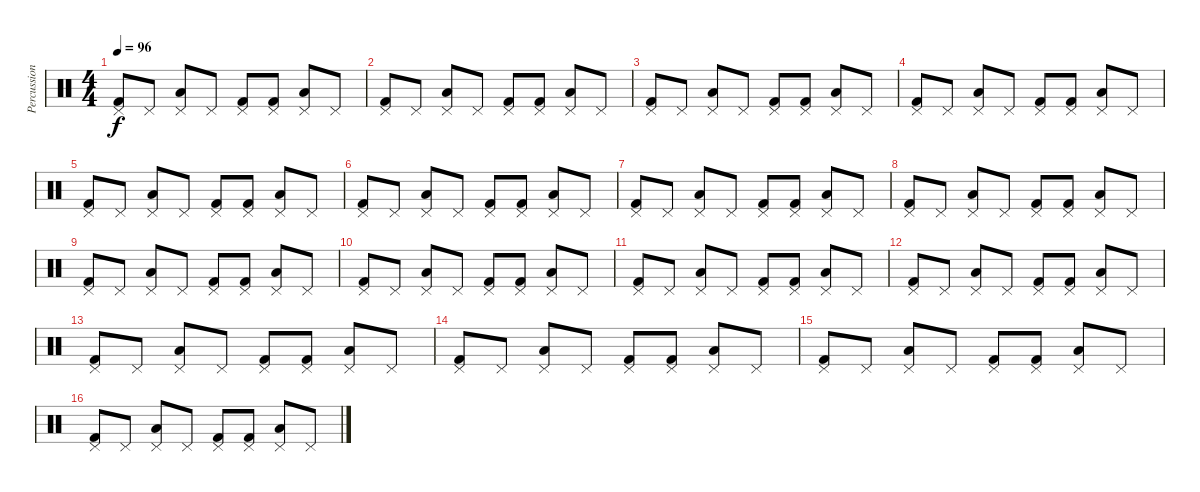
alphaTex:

\track ("Percussion" "Percussion") {instrument percussion}
\staff {score}
\articulation defaults
\ts (4 4)
\tempo 96
\clef neutral
\ks c
("Pedal Hi-Hat (hit)" "Kick (hit) 2").8{dy f} "Pedal Hi-Hat (hit)".8 ("Pedal Hi-Hat (hit)" "Low Floor Tom (hit)").8 "Pedal Hi-Hat (hit)".8 ("Pedal Hi-Hat (hit)" "Kick (hit) 2").8 ("Pedal Hi-Hat (hit)" "Kick (hit) 2").8 ("Pedal Hi-Hat (hit)" "Low Floor Tom (hit)").8 "Pedal Hi-Hat (hit)".8 |
("Pedal Hi-Hat (hit)" "Kick (hit) 2").8 "Pedal Hi-Hat (hit)".8 ("Pedal Hi-Hat (hit)" "Low Floor Tom (hit)").8 "Pedal Hi-Hat (hit)".8 ("Pedal Hi-Hat (hit)" "Kick (hit) 2").8 ("Pedal Hi-Hat (hit)" "Kick (hit) 2").8 ("Pedal Hi-Hat (hit)" "Low Floor Tom (hit)").8 "Pedal Hi-Hat (hit)".8 |
("Pedal Hi-Hat (hit)" "Kick (hit) 2").8 "Pedal Hi-Hat (hit)".8 ("Pedal Hi-Hat (hit)" "Low Floor Tom (hit)").8 "Pedal Hi-Hat (hit)".8 ("Pedal Hi-Hat (hit)" "Kick (hit) 2").8 ("Pedal Hi-Hat (hit)" "Kick (hit) 2").8 ("Pedal Hi-Hat (hit)" "Low Floor Tom (hit)").8 "Pedal Hi-Hat (hit)".8 |
("Pedal Hi-Hat (hit)" "Kick (hit) 2").8 "Pedal Hi-Hat (hit)".8 ("Pedal Hi-Hat (hit)" "Low Floor Tom (hit)").8 "Pedal Hi-Hat (hit)".8 ("Pedal Hi-Hat (hit)" "Kick (hit) 2").8 ("Pedal Hi-Hat (hit)" "Kick (hit) 2").8 ("Pedal Hi-Hat (hit)" "Low Floor Tom (hit)").8 "Pedal Hi-Hat (hit)".8 |
("Pedal Hi-Hat (hit)" "Kick (hit) 2").8 "Pedal Hi-Hat (hit)".8 ("Pedal Hi-Hat (hit)" "Low Floor Tom (hit)").8 "Pedal Hi-Hat (hit)".8 ("Pedal Hi-Hat (hit)" "Kick (hit) 2").8 ("Pedal Hi-Hat (hit)" "Kick (hit) 2").8 ("Pedal Hi-Hat (hit)" "Low Floor Tom (hit)").8 "Pedal Hi-Hat (hit)".8 |
("Pedal Hi-Hat (hit)" "Kick (hit) 2").8 "Pedal Hi-Hat (hit)".8 ("Pedal Hi-Hat (hit)" "Low Floor Tom (hit)").8 "Pedal Hi-Hat (hit)".8 ("Pedal Hi-Hat (hit)" "Kick (hit) 2").8 ("Pedal Hi-Hat (hit)" "Kick (hit) 2").8 ("Pedal Hi-Hat (hit)" "Low Floor Tom (hit)").8 "Pedal Hi-Hat (hit)".8 |
("Pedal Hi-Hat (hit)" "Kick (hit) 2").8 "Pedal Hi-Hat (hit)".8 ("Pedal Hi-Hat (hit)" "Low Floor Tom (hit)").8 "Pedal Hi-Hat (hit)".8 ("Pedal Hi-Hat (hit)" "Kick (hit) 2").8 ("Pedal Hi-Hat (hit)" "Kick (hit) 2").8 ("Pedal Hi-Hat (hit)" "Low Floor Tom (hit)").8 "Pedal Hi-Hat (hit)".8 |
("Pedal Hi-Hat (hit)" "Kick (hit) 2").8 "Pedal Hi-Hat (hit)".8 ("Pedal Hi-Hat (hit)" "Low Floor Tom (hit)").8 "Pedal Hi-Hat (hit)".8 ("Pedal Hi-Hat (hit)" "Kick (hit) 2").8 ("Pedal Hi-Hat (hit)" "Kick (hit) 2").8 ("Pedal Hi-Hat (hit)" "Low Floor Tom (hit)").8 "Pedal Hi-Hat (hit)".8 |
("Pedal Hi-Hat (hit)" "Kick (hit) 2").8 "Pedal Hi-Hat (hit)".8 ("Pedal Hi-Hat (hit)" "Low Floor Tom (hit)").8 "Pedal Hi-Hat (hit)".8 ("Pedal Hi-Hat (hit)" "Kick (hit) 2").8 ("Pedal Hi-Hat (hit)" "Kick (hit) 2").8 ("Pedal Hi-Hat (hit)" "Low Floor Tom (hit)").8 "Pedal Hi-Hat (hit)".8 |
("Pedal Hi-Hat (hit)" "Kick (hit) 2").8 "Pedal Hi-Hat (hit)".8 ("Pedal Hi-Hat (hit)" "Low Floor Tom (hit)").8 "Pedal Hi-Hat (hit)".8 ("Pedal Hi-Hat (hit)" "Kick (hit) 2").8 ("Pedal Hi-Hat (hit)" "Kick (hit) 2").8 ("Pedal Hi-Hat (hit)" "Low Floor Tom (hit)").8 "Pedal Hi-Hat (hit)".8 |
("Pedal Hi-Hat (hit)" "Kick (hit) 2").8 "Pedal Hi-Hat (hit)".8 ("Pedal Hi-Hat (hit)" "Low Floor Tom (hit)").8 "Pedal Hi-Hat (hit)".8 ("Pedal Hi-Hat (hit)" "Kick (hit) 2").8 ("Pedal Hi-Hat (hit)" "Kick (hit) 2").8 ("Pedal Hi-Hat (hit)" "Low Floor Tom (hit)").8 "Pedal Hi-Hat (hit)".8 |
("Pedal Hi-Hat (hit)" "Kick (hit) 2").8 "Pedal Hi-Hat (hit)".8 ("Pedal Hi-Hat (hit)" "Low Floor Tom (hit)").8 "Pedal Hi-Hat (hit)".8 ("Pedal Hi-Hat (hit)" "Kick (hit) 2").8 ("Pedal Hi-Hat (hit)" "Kick (hit) 2").8 ("Pedal Hi-Hat (hit)" "Low Floor Tom (hit)").8 "Pedal Hi-Hat (hit)".8 |
("Pedal Hi-Hat (hit)" "Kick (hit) 2").8 "Pedal Hi-Hat (hit)".8 ("Pedal Hi-Hat (hit)" "Low Floor Tom (hit)").8 "Pedal Hi-Hat (hit)".8 ("Pedal Hi-Hat (hit)" "Kick (hit) 2").8 ("Pedal Hi-Hat (hit)" "Kick (hit) 2").8 ("Pedal Hi-Hat (hit)" "Low Floor Tom (hit)").8 "Pedal Hi-Hat (hit)".8 |
("Pedal Hi-Hat (hit)" "Kick (hit) 2").8 "Pedal Hi-Hat (hit)".8 ("Pedal Hi-Hat (hit)" "Low Floor Tom (hit)").8 "Pedal Hi-Hat (hit)".8 ("Pedal Hi-Hat (hit)" "Kick (hit) 2").8 ("Pedal Hi-Hat (hit)" "Kick (hit) 2").8 ("Pedal Hi-Hat (hit)" "Low Floor Tom (hit)").8 "Pedal Hi-Hat (hit)".8 |
("Pedal Hi-Hat (hit)" "Kick (hit) 2").8 "Pedal Hi-Hat (hit)".8 ("Pedal Hi-Hat (hit)" "Low Floor Tom (hit)").8 "Pedal Hi-Hat (hit)".8 ("Pedal Hi-Hat (hit)" "Kick (hit) 2").8 ("Pedal Hi-Hat (hit)" "Kick (hit) 2").8 ("Pedal Hi-Hat (hit)" "Low Floor Tom (hit)").8 "Pedal Hi-Hat (hit)".8 |
("Pedal Hi-Hat (hit)" "Kick (hit) 2").8 "Pedal Hi-Hat (hit)".8 ("Pedal Hi-Hat (hit)" "Low Floor Tom (hit)").8 "Pedal Hi-Hat (hit)".8 ("Pedal Hi-Hat (hit)" "Kick (hit) 2").8 ("Pedal Hi-Hat (hit)" "Kick (hit) 2").8 ("Pedal Hi-Hat (hit)" "Low Floor Tom (hit)").8 "Pedal Hi-Hat (hit)".8
